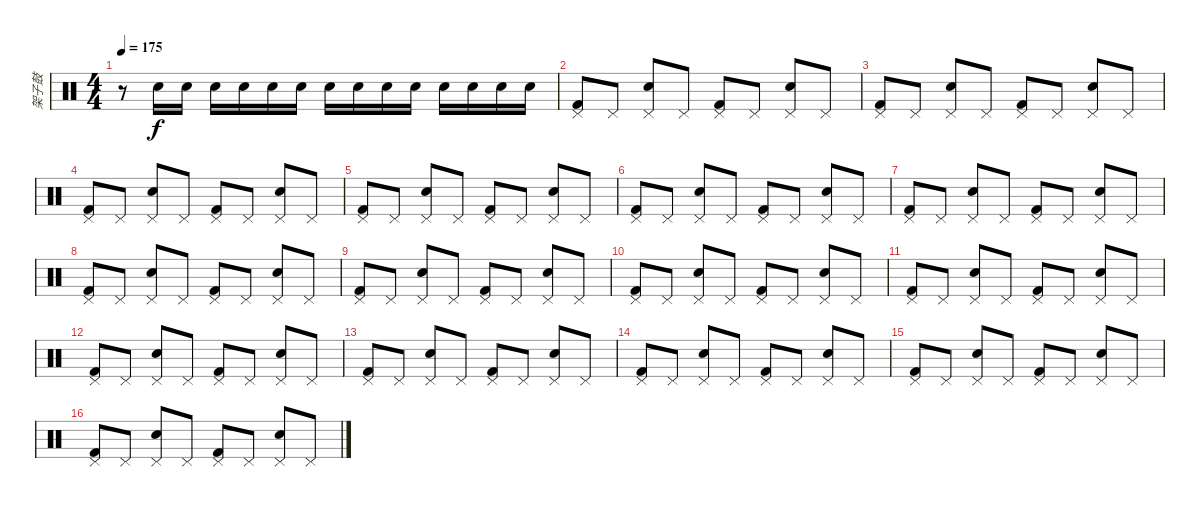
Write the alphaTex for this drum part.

\track ("架子鼓" "架子鼓") {instrument percussion}
\staff {score}
\articulation defaults
\ts (4 4)
\tempo 175
\clef neutral
\ks c
r.8{dy f} "Electric Snare (hit)".16 "Electric Snare (hit)".16 "Electric Snare (hit)".16 "Electric Snare (hit)".16 "Electric Snare (hit)".16 "Electric Snare (hit)".16 "Electric Snare (hit)".16 "Electric Snare (hit)".16 "Electric Snare (hit)".16 "Electric Snare (hit)".16 "Electric Snare (hit)".16 "Electric Snare (hit)".16 "Electric Snare (hit)".16 "Electric Snare (hit)".16 |
("Pedal Hi-Hat (hit)" "Kick (hit) 2").8 "Pedal Hi-Hat (hit)".8 ("Pedal Hi-Hat (hit)" "Electric Snare (hit)").8 "Pedal Hi-Hat (hit)".8 ("Pedal Hi-Hat (hit)" "Kick (hit) 2").8 "Pedal Hi-Hat (hit)".8 ("Pedal Hi-Hat (hit)" "Electric Snare (hit)").8 "Pedal Hi-Hat (hit)".8 |
("Pedal Hi-Hat (hit)" "Kick (hit) 2").8 "Pedal Hi-Hat (hit)".8 ("Pedal Hi-Hat (hit)" "Electric Snare (hit)").8 "Pedal Hi-Hat (hit)".8 ("Pedal Hi-Hat (hit)" "Kick (hit) 2").8 "Pedal Hi-Hat (hit)".8 ("Pedal Hi-Hat (hit)" "Electric Snare (hit)").8 "Pedal Hi-Hat (hit)".8 |
("Pedal Hi-Hat (hit)" "Kick (hit) 2").8 "Pedal Hi-Hat (hit)".8 ("Pedal Hi-Hat (hit)" "Electric Snare (hit)").8 "Pedal Hi-Hat (hit)".8 ("Pedal Hi-Hat (hit)" "Kick (hit) 2").8 "Pedal Hi-Hat (hit)".8 ("Pedal Hi-Hat (hit)" "Electric Snare (hit)").8 "Pedal Hi-Hat (hit)".8 |
("Pedal Hi-Hat (hit)" "Kick (hit) 2").8 "Pedal Hi-Hat (hit)".8 ("Pedal Hi-Hat (hit)" "Electric Snare (hit)").8 "Pedal Hi-Hat (hit)".8 ("Pedal Hi-Hat (hit)" "Kick (hit) 2").8 "Pedal Hi-Hat (hit)".8 ("Pedal Hi-Hat (hit)" "Electric Snare (hit)").8 "Pedal Hi-Hat (hit)".8 |
("Pedal Hi-Hat (hit)" "Kick (hit) 2").8 "Pedal Hi-Hat (hit)".8 ("Pedal Hi-Hat (hit)" "Electric Snare (hit)").8 "Pedal Hi-Hat (hit)".8 ("Pedal Hi-Hat (hit)" "Kick (hit) 2").8 "Pedal Hi-Hat (hit)".8 ("Pedal Hi-Hat (hit)" "Electric Snare (hit)").8 "Pedal Hi-Hat (hit)".8 |
("Pedal Hi-Hat (hit)" "Kick (hit) 2").8 "Pedal Hi-Hat (hit)".8 ("Pedal Hi-Hat (hit)" "Electric Snare (hit)").8 "Pedal Hi-Hat (hit)".8 ("Pedal Hi-Hat (hit)" "Kick (hit) 2").8 "Pedal Hi-Hat (hit)".8 ("Pedal Hi-Hat (hit)" "Electric Snare (hit)").8 "Pedal Hi-Hat (hit)".8 |
("Pedal Hi-Hat (hit)" "Kick (hit) 2").8 "Pedal Hi-Hat (hit)".8 ("Pedal Hi-Hat (hit)" "Electric Snare (hit)").8 "Pedal Hi-Hat (hit)".8 ("Pedal Hi-Hat (hit)" "Kick (hit) 2").8 "Pedal Hi-Hat (hit)".8 ("Pedal Hi-Hat (hit)" "Electric Snare (hit)").8 "Pedal Hi-Hat (hit)".8 |
("Pedal Hi-Hat (hit)" "Kick (hit) 2").8 "Pedal Hi-Hat (hit)".8 ("Pedal Hi-Hat (hit)" "Electric Snare (hit)").8 "Pedal Hi-Hat (hit)".8 ("Pedal Hi-Hat (hit)" "Kick (hit) 2").8 "Pedal Hi-Hat (hit)".8 ("Pedal Hi-Hat (hit)" "Electric Snare (hit)").8 "Pedal Hi-Hat (hit)".8 |
("Pedal Hi-Hat (hit)" "Kick (hit) 2").8 "Pedal Hi-Hat (hit)".8 ("Pedal Hi-Hat (hit)" "Electric Snare (hit)").8 "Pedal Hi-Hat (hit)".8 ("Pedal Hi-Hat (hit)" "Kick (hit) 2").8 "Pedal Hi-Hat (hit)".8 ("Pedal Hi-Hat (hit)" "Electric Snare (hit)").8 "Pedal Hi-Hat (hit)".8 |
("Pedal Hi-Hat (hit)" "Kick (hit) 2").8 "Pedal Hi-Hat (hit)".8 ("Pedal Hi-Hat (hit)" "Electric Snare (hit)").8 "Pedal Hi-Hat (hit)".8 ("Pedal Hi-Hat (hit)" "Kick (hit) 2").8 "Pedal Hi-Hat (hit)".8 ("Pedal Hi-Hat (hit)" "Electric Snare (hit)").8 "Pedal Hi-Hat (hit)".8 |
("Pedal Hi-Hat (hit)" "Kick (hit) 2").8 "Pedal Hi-Hat (hit)".8 ("Pedal Hi-Hat (hit)" "Electric Snare (hit)").8 "Pedal Hi-Hat (hit)".8 ("Pedal Hi-Hat (hit)" "Kick (hit) 2").8 "Pedal Hi-Hat (hit)".8 ("Pedal Hi-Hat (hit)" "Electric Snare (hit)").8 "Pedal Hi-Hat (hit)".8 |
("Pedal Hi-Hat (hit)" "Kick (hit) 2").8 "Pedal Hi-Hat (hit)".8 ("Pedal Hi-Hat (hit)" "Electric Snare (hit)").8 "Pedal Hi-Hat (hit)".8 ("Pedal Hi-Hat (hit)" "Kick (hit) 2").8 "Pedal Hi-Hat (hit)".8 ("Pedal Hi-Hat (hit)" "Electric Snare (hit)").8 "Pedal Hi-Hat (hit)".8 |
("Pedal Hi-Hat (hit)" "Kick (hit) 2").8 "Pedal Hi-Hat (hit)".8 ("Pedal Hi-Hat (hit)" "Electric Snare (hit)").8 "Pedal Hi-Hat (hit)".8 ("Pedal Hi-Hat (hit)" "Kick (hit) 2").8 "Pedal Hi-Hat (hit)".8 ("Pedal Hi-Hat (hit)" "Electric Snare (hit)").8 "Pedal Hi-Hat (hit)".8 |
("Pedal Hi-Hat (hit)" "Kick (hit) 2").8 "Pedal Hi-Hat (hit)".8 ("Pedal Hi-Hat (hit)" "Electric Snare (hit)").8 "Pedal Hi-Hat (hit)".8 ("Pedal Hi-Hat (hit)" "Kick (hit) 2").8 "Pedal Hi-Hat (hit)".8 ("Pedal Hi-Hat (hit)" "Electric Snare (hit)").8 "Pedal Hi-Hat (hit)".8 |
("Pedal Hi-Hat (hit)" "Kick (hit) 2").8 "Pedal Hi-Hat (hit)".8 ("Pedal Hi-Hat (hit)" "Electric Snare (hit)").8 "Pedal Hi-Hat (hit)".8 ("Pedal Hi-Hat (hit)" "Kick (hit) 2").8 "Pedal Hi-Hat (hit)".8 ("Pedal Hi-Hat (hit)" "Electric Snare (hit)").8 "Pedal Hi-Hat (hit)".8
